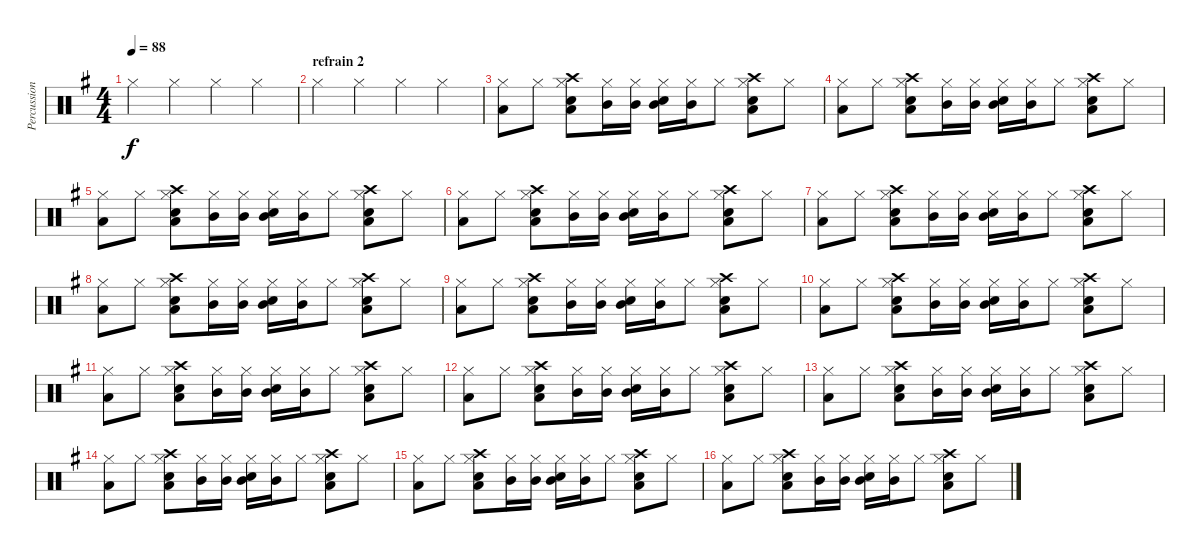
\track ("Percussions" "Percussion") {instrument percussion}
\staff {score}
\articulation defaults
\ts (4 4)
\tempo 88
\clef neutral
\ks g "Hi-Hat (closed)".4{dy f} "Hi-Hat (closed)".4 "Hi-Hat (closed)".4 "Hi-Hat (closed)".4
|
\section ("" "refrain 2")
"Hi-Hat (closed)".4 "Hi-Hat (closed)".4 "Hi-Hat (closed)".4 "Hi-Hat (closed)".4 |
("Hi-Hat (closed)" "Low Floor Tom (hit)").8 "Hi-Hat (closed)".8 ("Snare (hit) 2" "Low Floor Tom (hit)" "Hi-Hat (closed)" "Crash high (hit)").8 ("Mid Tom (hit)" "Hi-Hat (closed)").16 ("Mid Tom (hit)" "Hi-Hat (closed)").16 ("Snare (hit) 2" "Mid Tom (hit)" "Hi-Hat (closed)").16 ("Mid Tom (hit)" "Hi-Hat (closed)").16 "Hi-Hat (closed)".8 ("Snare (hit) 2" "Low Floor Tom (hit)" "Hi-Hat (closed)" "Crash high (hit)").8 "Hi-Hat (closed)".8 |
("Hi-Hat (closed)" "Low Floor Tom (hit)").8 "Hi-Hat (closed)".8 ("Snare (hit) 2" "Low Floor Tom (hit)" "Hi-Hat (closed)" "Crash high (hit)").8 ("Mid Tom (hit)" "Hi-Hat (closed)").16 ("Mid Tom (hit)" "Hi-Hat (closed)").16 ("Snare (hit) 2" "Mid Tom (hit)" "Hi-Hat (closed)").16 ("Mid Tom (hit)" "Hi-Hat (closed)").16 "Hi-Hat (closed)".8 ("Snare (hit) 2" "Low Floor Tom (hit)" "Hi-Hat (closed)" "Crash high (hit)").8 "Hi-Hat (closed)".8 |
("Hi-Hat (closed)" "Low Floor Tom (hit)").8 "Hi-Hat (closed)".8 ("Snare (hit) 2" "Low Floor Tom (hit)" "Hi-Hat (closed)" "Crash high (hit)").8 ("Mid Tom (hit)" "Hi-Hat (closed)").16 ("Mid Tom (hit)" "Hi-Hat (closed)").16 ("Snare (hit) 2" "Mid Tom (hit)" "Hi-Hat (closed)").16 ("Mid Tom (hit)" "Hi-Hat (closed)").16 "Hi-Hat (closed)".8 ("Snare (hit) 2" "Low Floor Tom (hit)" "Hi-Hat (closed)" "Crash high (hit)").8 "Hi-Hat (closed)".8 |
("Hi-Hat (closed)" "Low Floor Tom (hit)").8 "Hi-Hat (closed)".8 ("Snare (hit) 2" "Low Floor Tom (hit)" "Hi-Hat (closed)" "Crash high (hit)").8 ("Mid Tom (hit)" "Hi-Hat (closed)").16 ("Mid Tom (hit)" "Hi-Hat (closed)").16 ("Snare (hit) 2" "Mid Tom (hit)" "Hi-Hat (closed)").16 ("Mid Tom (hit)" "Hi-Hat (closed)").16 "Hi-Hat (closed)".8 ("Snare (hit) 2" "Low Floor Tom (hit)" "Hi-Hat (closed)" "Crash high (hit)").8 "Hi-Hat (closed)".8 |
("Hi-Hat (closed)" "Low Floor Tom (hit)").8 "Hi-Hat (closed)".8 ("Snare (hit) 2" "Low Floor Tom (hit)" "Hi-Hat (closed)" "Crash high (hit)").8 ("Mid Tom (hit)" "Hi-Hat (closed)").16 ("Mid Tom (hit)" "Hi-Hat (closed)").16 ("Snare (hit) 2" "Mid Tom (hit)" "Hi-Hat (closed)").16 ("Mid Tom (hit)" "Hi-Hat (closed)").16 "Hi-Hat (closed)".8 ("Snare (hit) 2" "Low Floor Tom (hit)" "Hi-Hat (closed)" "Crash high (hit)").8 "Hi-Hat (closed)".8 |
("Hi-Hat (closed)" "Low Floor Tom (hit)").8 "Hi-Hat (closed)".8 ("Snare (hit) 2" "Low Floor Tom (hit)" "Hi-Hat (closed)" "Crash high (hit)").8 ("Mid Tom (hit)" "Hi-Hat (closed)").16 ("Mid Tom (hit)" "Hi-Hat (closed)").16 ("Snare (hit) 2" "Mid Tom (hit)" "Hi-Hat (closed)").16 ("Mid Tom (hit)" "Hi-Hat (closed)").16 "Hi-Hat (closed)".8 ("Snare (hit) 2" "Low Floor Tom (hit)" "Hi-Hat (closed)" "Crash high (hit)").8 "Hi-Hat (closed)".8 |
("Hi-Hat (closed)" "Low Floor Tom (hit)").8 "Hi-Hat (closed)".8 ("Snare (hit) 2" "Low Floor Tom (hit)" "Hi-Hat (closed)" "Crash high (hit)").8 ("Mid Tom (hit)" "Hi-Hat (closed)").16 ("Mid Tom (hit)" "Hi-Hat (closed)").16 ("Snare (hit) 2" "Mid Tom (hit)" "Hi-Hat (closed)").16 ("Mid Tom (hit)" "Hi-Hat (closed)").16 "Hi-Hat (closed)".8 ("Snare (hit) 2" "Low Floor Tom (hit)" "Hi-Hat (closed)" "Crash high (hit)").8 "Hi-Hat (closed)".8 |
("Hi-Hat (closed)" "Low Floor Tom (hit)").8 "Hi-Hat (closed)".8 ("Snare (hit) 2" "Low Floor Tom (hit)" "Hi-Hat (closed)" "Crash high (hit)").8 ("Mid Tom (hit)" "Hi-Hat (closed)").16 ("Mid Tom (hit)" "Hi-Hat (closed)").16 ("Snare (hit) 2" "Mid Tom (hit)" "Hi-Hat (closed)").16 ("Mid Tom (hit)" "Hi-Hat (closed)").16 "Hi-Hat (closed)".8 ("Snare (hit) 2" "Low Floor Tom (hit)" "Hi-Hat (closed)" "Crash high (hit)").8 "Hi-Hat (closed)".8 |
("Hi-Hat (closed)" "Low Floor Tom (hit)").8 "Hi-Hat (closed)".8 ("Snare (hit) 2" "Low Floor Tom (hit)" "Hi-Hat (closed)" "Crash high (hit)").8 ("Mid Tom (hit)" "Hi-Hat (closed)").16 ("Mid Tom (hit)" "Hi-Hat (closed)").16 ("Snare (hit) 2" "Mid Tom (hit)" "Hi-Hat (closed)").16 ("Mid Tom (hit)" "Hi-Hat (closed)").16 "Hi-Hat (closed)".8 ("Snare (hit) 2" "Low Floor Tom (hit)" "Hi-Hat (closed)" "Crash high (hit)").8 "Hi-Hat (closed)".8 |
("Hi-Hat (closed)" "Low Floor Tom (hit)").8 "Hi-Hat (closed)".8 ("Snare (hit) 2" "Low Floor Tom (hit)" "Hi-Hat (closed)" "Crash high (hit)").8 ("Mid Tom (hit)" "Hi-Hat (closed)").16 ("Mid Tom (hit)" "Hi-Hat (closed)").16 ("Snare (hit) 2" "Mid Tom (hit)" "Hi-Hat (closed)").16 ("Mid Tom (hit)" "Hi-Hat (closed)").16 "Hi-Hat (closed)".8 ("Snare (hit) 2" "Low Floor Tom (hit)" "Hi-Hat (closed)" "Crash high (hit)").8 "Hi-Hat (closed)".8 |
("Hi-Hat (closed)" "Low Floor Tom (hit)").8 "Hi-Hat (closed)".8 ("Snare (hit) 2" "Low Floor Tom (hit)" "Hi-Hat (closed)" "Crash high (hit)").8 ("Mid Tom (hit)" "Hi-Hat (closed)").16 ("Mid Tom (hit)" "Hi-Hat (closed)").16 ("Snare (hit) 2" "Mid Tom (hit)" "Hi-Hat (closed)").16 ("Mid Tom (hit)" "Hi-Hat (closed)").16 "Hi-Hat (closed)".8 ("Snare (hit) 2" "Low Floor Tom (hit)" "Hi-Hat (closed)" "Crash high (hit)").8 "Hi-Hat (closed)".8 |
("Hi-Hat (closed)" "Low Floor Tom (hit)").8 "Hi-Hat (closed)".8 ("Snare (hit) 2" "Low Floor Tom (hit)" "Hi-Hat (closed)" "Crash high (hit)").8 ("Mid Tom (hit)" "Hi-Hat (closed)").16 ("Mid Tom (hit)" "Hi-Hat (closed)").16 ("Snare (hit) 2" "Mid Tom (hit)" "Hi-Hat (closed)").16 ("Mid Tom (hit)" "Hi-Hat (closed)").16 "Hi-Hat (closed)".8 ("Snare (hit) 2" "Low Floor Tom (hit)" "Hi-Hat (closed)" "Crash high (hit)").8 "Hi-Hat (closed)".8 |
("Hi-Hat (closed)" "Low Floor Tom (hit)").8 "Hi-Hat (closed)".8 ("Snare (hit) 2" "Low Floor Tom (hit)" "Hi-Hat (closed)" "Crash high (hit)").8 ("Mid Tom (hit)" "Hi-Hat (closed)").16 ("Mid Tom (hit)" "Hi-Hat (closed)").16 ("Snare (hit) 2" "Mid Tom (hit)" "Hi-Hat (closed)").16 ("Mid Tom (hit)" "Hi-Hat (closed)").16 "Hi-Hat (closed)".8 ("Snare (hit) 2" "Low Floor Tom (hit)" "Hi-Hat (closed)" "Crash high (hit)").8 "Hi-Hat (closed)".8 |
("Hi-Hat (closed)" "Low Floor Tom (hit)").8 "Hi-Hat (closed)".8 ("Snare (hit) 2" "Low Floor Tom (hit)" "Hi-Hat (closed)" "Crash high (hit)").8 ("Mid Tom (hit)" "Hi-Hat (closed)").16 ("Mid Tom (hit)" "Hi-Hat (closed)").16 ("Snare (hit) 2" "Mid Tom (hit)" "Hi-Hat (closed)").16 ("Mid Tom (hit)" "Hi-Hat (closed)").16 "Hi-Hat (closed)".8 ("Snare (hit) 2" "Low Floor Tom (hit)" "Hi-Hat (closed)" "Crash high (hit)").8 "Hi-Hat (closed)".8
